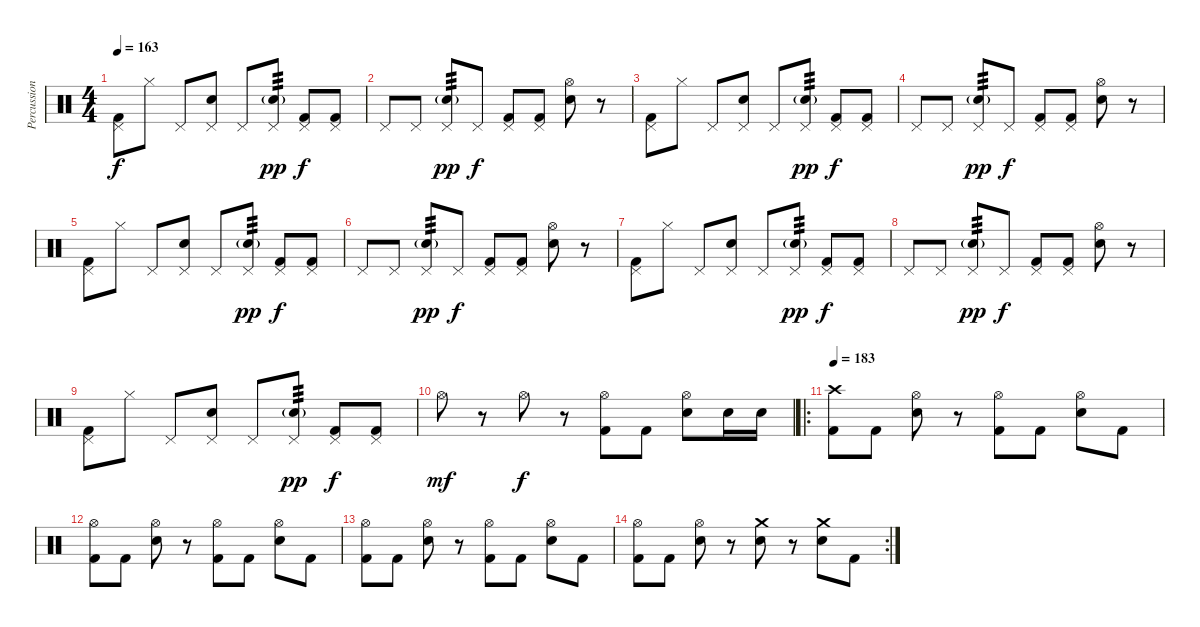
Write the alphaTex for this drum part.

\track ("Percussion" "Percussion") {instrument percussion}
\staff {score}
\articulation defaults
\ts (4 4)
\tempo 163
\clef neutral
\ks c
("Pedal Hi-Hat (hit)" "Kick (hit) 2").8{dy f} "Hi-Hat (closed)".8 "Pedal Hi-Hat (hit)".8 ("Pedal Hi-Hat (hit)" "Electric Snare (hit)").8 "Pedal Hi-Hat (hit)".8 ("Pedal Hi-Hat (hit)" "Electric Snare (hit)"{g}).8{tp 3 dy pp} ("Pedal Hi-Hat (hit)" "Kick (hit) 2").8{dy f} ("Pedal Hi-Hat (hit)" "Kick (hit) 2").8 |
"Pedal Hi-Hat (hit)".8 "Pedal Hi-Hat (hit)".8 ("Pedal Hi-Hat (hit)" "Electric Snare (hit)"{g}).8{tp 3 dy pp} "Pedal Hi-Hat (hit)".8{dy f} ("Pedal Hi-Hat (hit)" "Kick (hit) 2").8 ("Pedal Hi-Hat (hit)" "Kick (hit) 2").8 ("Hi-Hat (open)" "Electric Snare (hit)").8 r.8 |
("Pedal Hi-Hat (hit)" "Kick (hit) 2").8 "Hi-Hat (closed)".8 "Pedal Hi-Hat (hit)".8 ("Pedal Hi-Hat (hit)" "Electric Snare (hit)").8 "Pedal Hi-Hat (hit)".8 ("Pedal Hi-Hat (hit)" "Electric Snare (hit)"{g}).8{tp 3 dy pp} ("Pedal Hi-Hat (hit)" "Kick (hit) 2").8{dy f} ("Pedal Hi-Hat (hit)" "Kick (hit) 2").8 |
"Pedal Hi-Hat (hit)".8 "Pedal Hi-Hat (hit)".8 ("Pedal Hi-Hat (hit)" "Electric Snare (hit)"{g}).8{tp 3 dy pp} "Pedal Hi-Hat (hit)".8{dy f} ("Pedal Hi-Hat (hit)" "Kick (hit) 2").8 ("Pedal Hi-Hat (hit)" "Kick (hit) 2").8 ("Hi-Hat (open)" "Electric Snare (hit)").8 r.8 |
("Pedal Hi-Hat (hit)" "Kick (hit) 2").8 "Hi-Hat (closed)".8 "Pedal Hi-Hat (hit)".8 ("Pedal Hi-Hat (hit)" "Electric Snare (hit)").8 "Pedal Hi-Hat (hit)".8 ("Pedal Hi-Hat (hit)" "Electric Snare (hit)"{g}).8{tp 3 dy pp} ("Pedal Hi-Hat (hit)" "Kick (hit) 2").8{dy f} ("Pedal Hi-Hat (hit)" "Kick (hit) 2").8 |
"Pedal Hi-Hat (hit)".8 "Pedal Hi-Hat (hit)".8 ("Pedal Hi-Hat (hit)" "Electric Snare (hit)"{g}).8{tp 3 dy pp} "Pedal Hi-Hat (hit)".8{dy f} ("Pedal Hi-Hat (hit)" "Kick (hit) 2").8 ("Pedal Hi-Hat (hit)" "Kick (hit) 2").8 ("Hi-Hat (open)" "Electric Snare (hit)").8 r.8 |
("Pedal Hi-Hat (hit)" "Kick (hit) 2").8 "Hi-Hat (closed)".8 "Pedal Hi-Hat (hit)".8 ("Pedal Hi-Hat (hit)" "Electric Snare (hit)").8 "Pedal Hi-Hat (hit)".8 ("Pedal Hi-Hat (hit)" "Electric Snare (hit)"{g}).8{tp 3 dy pp} ("Pedal Hi-Hat (hit)" "Kick (hit) 2").8{dy f} ("Pedal Hi-Hat (hit)" "Kick (hit) 2").8 |
"Pedal Hi-Hat (hit)".8 "Pedal Hi-Hat (hit)".8 ("Pedal Hi-Hat (hit)" "Electric Snare (hit)"{g}).8{tp 3 dy pp} "Pedal Hi-Hat (hit)".8{dy f} ("Pedal Hi-Hat (hit)" "Kick (hit) 2").8 ("Pedal Hi-Hat (hit)" "Kick (hit) 2").8 ("Hi-Hat (open)" "Electric Snare (hit)").8 r.8 |
("Pedal Hi-Hat (hit)" "Kick (hit) 2").8 "Hi-Hat (closed)".8 "Pedal Hi-Hat (hit)".8 ("Pedal Hi-Hat (hit)" "Electric Snare (hit)").8 "Pedal Hi-Hat (hit)".8 ("Pedal Hi-Hat (hit)" "Electric Snare (hit)"{g}).8{tp 3 dy pp} ("Pedal Hi-Hat (hit)" "Kick (hit) 2").8{dy f} ("Pedal Hi-Hat (hit)" "Kick (hit) 2").8 |
"Hi-Hat (open)".8{dy mf} r.8 "Hi-Hat (open)".8{dy f} r.8 ("Hi-Hat (open)" "Kick (hit) 2").8 "Kick (hit) 2".8 ("Hi-Hat (open)" "Electric Snare (hit)").8 "Electric Snare (hit)".16 "Electric Snare (hit)".16 |
\ro
\section ("" "")
\tempo 183
("Crash high (hit)" "Kick (hit) 2").8 "Kick (hit) 2".8 ("Hi-Hat (open)" "Electric Snare (hit)").8 r.8 ("Hi-Hat (open)" "Kick (hit) 2").8 "Kick (hit) 2".8 ("Hi-Hat (open)" "Electric Snare (hit)").8 "Kick (hit) 2".8 |
("Hi-Hat (open)" "Kick (hit) 2").8 "Kick (hit) 2".8 ("Hi-Hat (open)" "Electric Snare (hit)").8 r.8 ("Hi-Hat (open)" "Kick (hit) 2").8 "Kick (hit) 2".8 ("Hi-Hat (open)" "Electric Snare (hit)").8 "Kick (hit) 2".8 |
("Hi-Hat (open)" "Kick (hit) 2").8 "Kick (hit) 2".8 ("Hi-Hat (open)" "Electric Snare (hit)").8 r.8 ("Hi-Hat (open)" "Kick (hit) 2").8 "Kick (hit) 2".8 ("Hi-Hat (open)" "Electric Snare (hit)").8 "Kick (hit) 2".8 |
\rc 2
("Hi-Hat (open)" "Kick (hit) 2").8 "Kick (hit) 2".8 ("Hi-Hat (open)" "Electric Snare (hit)").8 r.8 ("Crash medium (hit)" "Electric Snare (hit)").8 r.8 ("Crash medium (hit)" "Electric Snare (hit)").8 "Kick (hit) 2".8
